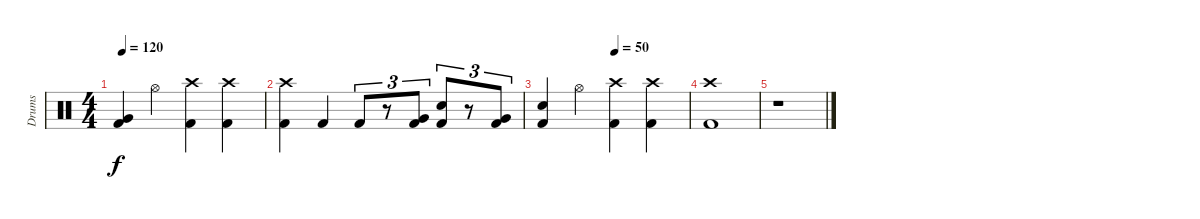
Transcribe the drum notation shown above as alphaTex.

\track ("Drums" "Drums") {instrument percussion}
\staff {score}
\articulation defaults
\ts (4 4)
\tempo 120
\clef neutral
\ks c
("Very Low Tom (hit)" "Kick (hit) 2").4{dy f} "Hi-Hat (open)".4 ("Crash high (hit)" "Kick (hit) 2").4 ("Crash high (hit)" "Kick (hit) 2").4 |
("Crash high (hit)" "Kick (hit) 2").4 "Kick (hit) 2".4 "Kick (hit) 2".8{tu (3 2)} r.8{tu (3 2)} ("Very Low Tom (hit)" "Kick (hit) 2").8{tu (3 2)} ("Snare (hit) 2" "Kick (hit) 2").8{tu (3 2)} r.8{tu (3 2)} ("Very Low Tom (hit)" "Kick (hit) 2").8{tu (3 2)} |
\tempo (50 0.5)
("Snare (hit) 2" "Kick (hit) 2").4 "Hi-Hat (open)".4 ("Crash high (hit)" "Kick (hit) 2").4 ("Crash high (hit)" "Kick (hit) 2").4 |
("Crash high (hit)" "Kick (hit) 2").1 |
r.1
